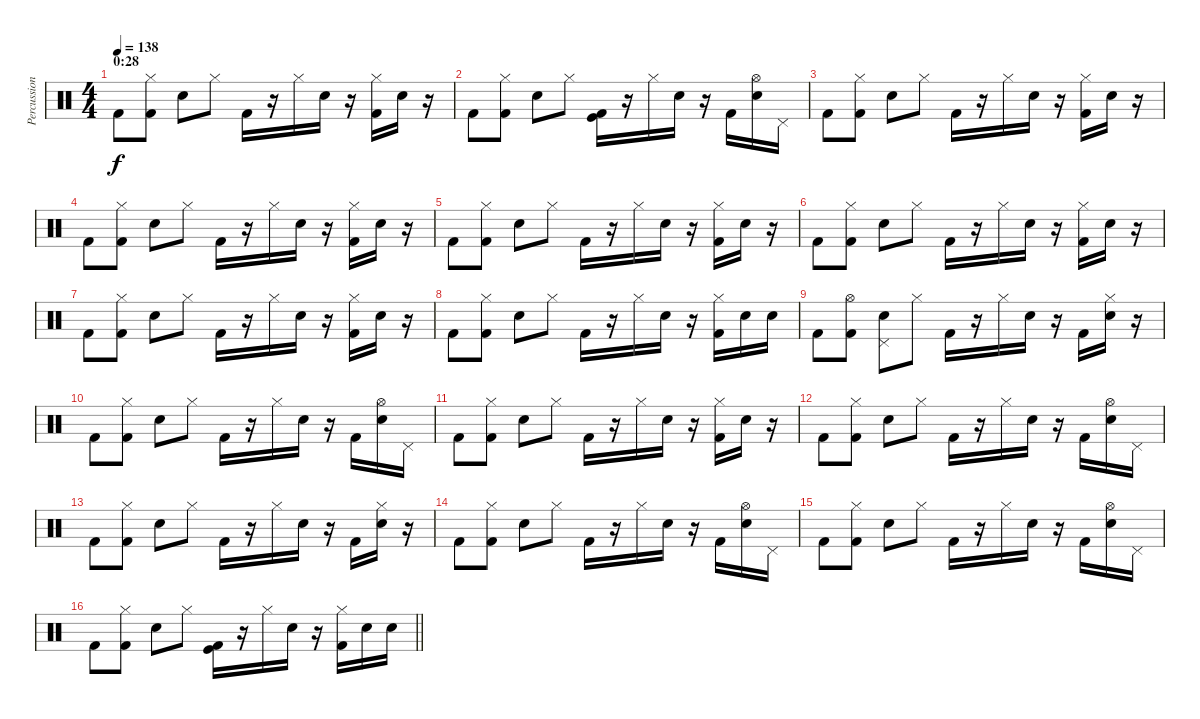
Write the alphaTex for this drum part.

\track ("Percussion" "Percussion") {instrument percussion}
\staff {score}
\articulation defaults
\ts (4 4)
\section ("" "0:28")
\tempo 138
\clef neutral
\ks c "Kick (hit) 2".8{dy f}
("Hi-Hat (closed)" "Kick (hit) 2").8 "Electric Snare (hit)".8 "Hi-Hat (closed)".8 "Kick (hit) 2".16 r.16 "Hi-Hat (closed)".16 "Electric Snare (hit)".16 r.16 ("Hi-Hat (closed)" "Kick (hit) 2").16 "Electric Snare (hit)".16 r.16 |
"Kick (hit) 2".8 ("Hi-Hat (closed)" "Kick (hit) 2").8 "Electric Snare (hit)".8 "Hi-Hat (closed)".8 ("Kick (hit)" "Kick (hit) 2").16 r.16 "Hi-Hat (closed)".16 "Electric Snare (hit)".16 r.16 "Kick (hit) 2".16 ("Hi-Hat (open)" "Electric Snare (hit)").16 "Pedal Hi-Hat (hit)".16 |
"Kick (hit) 2".8 ("Hi-Hat (closed)" "Kick (hit) 2").8 "Electric Snare (hit)".8 "Hi-Hat (closed)".8 "Kick (hit) 2".16 r.16 "Hi-Hat (closed)".16 "Electric Snare (hit)".16 r.16 ("Hi-Hat (closed)" "Kick (hit) 2").16 "Electric Snare (hit)".16 r.16 |
"Kick (hit) 2".8 ("Hi-Hat (closed)" "Kick (hit) 2").8 "Electric Snare (hit)".8 "Hi-Hat (closed)".8 "Kick (hit) 2".16 r.16 "Hi-Hat (closed)".16 "Electric Snare (hit)".16 r.16 ("Hi-Hat (closed)" "Kick (hit) 2").16 "Electric Snare (hit)".16 r.16 |
"Kick (hit) 2".8 ("Hi-Hat (closed)" "Kick (hit) 2").8 "Electric Snare (hit)".8 "Hi-Hat (closed)".8 "Kick (hit) 2".16 r.16 "Hi-Hat (closed)".16 "Electric Snare (hit)".16 r.16 ("Hi-Hat (closed)" "Kick (hit) 2").16 "Electric Snare (hit)".16 r.16 |
"Kick (hit) 2".8 ("Hi-Hat (closed)" "Kick (hit) 2").8 "Electric Snare (hit)".8 "Hi-Hat (closed)".8 "Kick (hit) 2".16 r.16 "Hi-Hat (closed)".16 "Electric Snare (hit)".16 r.16 ("Hi-Hat (closed)" "Kick (hit) 2").16 "Electric Snare (hit)".16 r.16 |
"Kick (hit) 2".8 ("Hi-Hat (closed)" "Kick (hit) 2").8 "Electric Snare (hit)".8 "Hi-Hat (closed)".8 "Kick (hit) 2".16 r.16 "Hi-Hat (closed)".16 "Electric Snare (hit)".16 r.16 ("Hi-Hat (closed)" "Kick (hit) 2").16 "Electric Snare (hit)".16 r.16 |
"Kick (hit) 2".8 ("Hi-Hat (closed)" "Kick (hit) 2").8 "Electric Snare (hit)".8 "Hi-Hat (closed)".8 "Kick (hit) 2".16 r.16 "Hi-Hat (closed)".16 "Electric Snare (hit)".16 r.16 ("Hi-Hat (closed)" "Kick (hit) 2").16 "Electric Snare (hit)".16 "Electric Snare (hit)".16 |
"Kick (hit) 2".8 ("Hi-Hat (open)" "Kick (hit) 2").8 ("Pedal Hi-Hat (hit)" "Electric Snare (hit)").8 "Hi-Hat (closed)".8 "Kick (hit) 2".16 r.16 "Hi-Hat (closed)".16 "Electric Snare (hit)".16 r.16 "Kick (hit) 2".16 ("Hi-Hat (closed)" "Electric Snare (hit)").16 r.16 |
"Kick (hit) 2".8 ("Hi-Hat (closed)" "Kick (hit) 2").8 "Electric Snare (hit)".8 "Hi-Hat (closed)".8 "Kick (hit) 2".16 r.16 "Hi-Hat (closed)".16 "Electric Snare (hit)".16 r.16 "Kick (hit) 2".16 ("Hi-Hat (open)" "Electric Snare (hit)").16 "Pedal Hi-Hat (hit)".16 |
"Kick (hit) 2".8 ("Hi-Hat (closed)" "Kick (hit) 2").8 "Electric Snare (hit)".8 "Hi-Hat (closed)".8 "Kick (hit) 2".16 r.16 "Hi-Hat (closed)".16 "Electric Snare (hit)".16 r.16 ("Hi-Hat (closed)" "Kick (hit) 2").16 "Electric Snare (hit)".16 r.16 |
"Kick (hit) 2".8 ("Hi-Hat (closed)" "Kick (hit) 2").8 "Electric Snare (hit)".8 "Hi-Hat (closed)".8 "Kick (hit) 2".16 r.16 "Hi-Hat (closed)".16 "Electric Snare (hit)".16 r.16 "Kick (hit) 2".16 ("Hi-Hat (open)" "Electric Snare (hit)").16 "Pedal Hi-Hat (hit)".16 |
"Kick (hit) 2".8 ("Hi-Hat (closed)" "Kick (hit) 2").8 "Electric Snare (hit)".8 "Hi-Hat (closed)".8 "Kick (hit) 2".16 r.16 "Hi-Hat (closed)".16 "Electric Snare (hit)".16 r.16 "Kick (hit) 2".16 ("Hi-Hat (closed)" "Electric Snare (hit)").16 r.16 |
"Kick (hit) 2".8 ("Hi-Hat (closed)" "Kick (hit) 2").8 "Electric Snare (hit)".8 "Hi-Hat (closed)".8 "Kick (hit) 2".16 r.16 "Hi-Hat (closed)".16 "Electric Snare (hit)".16 r.16 "Kick (hit) 2".16 ("Hi-Hat (open)" "Electric Snare (hit)").16 "Pedal Hi-Hat (hit)".16 |
"Kick (hit) 2".8 ("Hi-Hat (closed)" "Kick (hit) 2").8 "Electric Snare (hit)".8 "Hi-Hat (closed)".8 "Kick (hit) 2".16 r.16 "Hi-Hat (closed)".16 "Electric Snare (hit)".16 r.16 "Kick (hit) 2".16 ("Hi-Hat (open)" "Electric Snare (hit)").16 "Pedal Hi-Hat (hit)".16 |
\barLineRight lightlight "Kick (hit) 2".8
("Hi-Hat (closed)" "Kick (hit) 2").8 "Electric Snare (hit)".8 "Hi-Hat (closed)".8 ("Kick (hit)" "Kick (hit) 2").16 r.16 "Hi-Hat (closed)".16 "Electric Snare (hit)".16 r.16 ("Hi-Hat (closed)" "Kick (hit) 2").16 "Electric Snare (hit)".16 "Electric Snare (hit)".16
